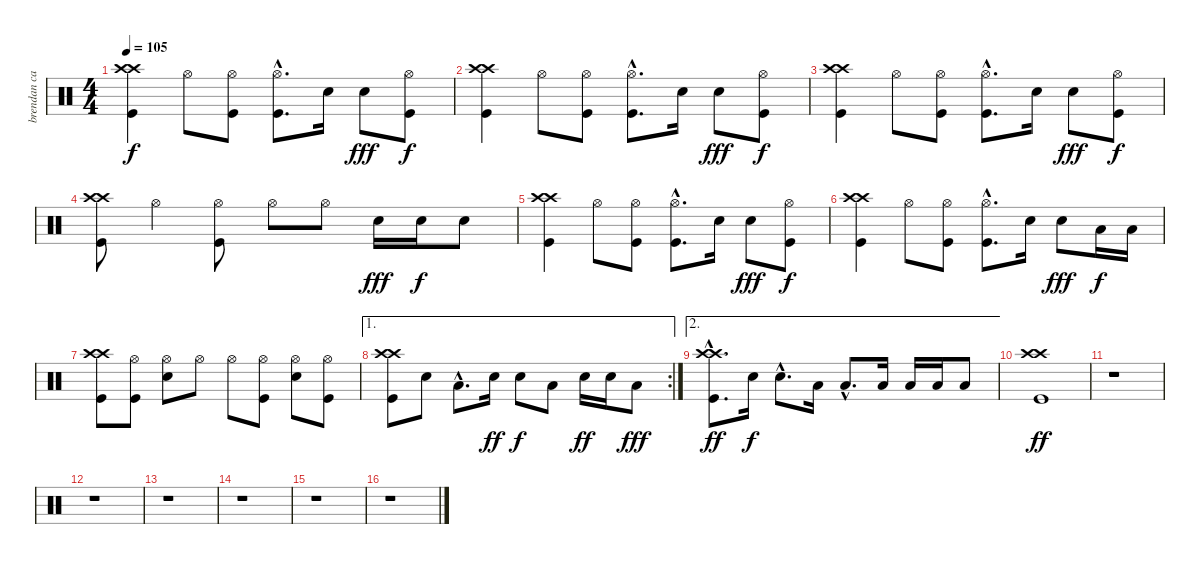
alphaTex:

\track ("brendan canty" "brendan ca") {instrument percussion}
\staff {score}
\articulation defaults
\ts (4 4)
\tempo 105
\clef neutral
\ks c
("Crash high (hit)" "Crash high (hit)" "Kick (hit)").4{dy f} "Hi-Hat (open)".8 ("Hi-Hat (open)" "Kick (hit)").8 ("Hi-Hat (open)"{hac} "Kick (hit)"{hac}).8{d} "Electric Snare (hit)".16 "Electric Snare (hit)".8{dy fff} ("Hi-Hat (open)" "Kick (hit)").8{dy f} |
("Crash high (hit)" "Crash high (hit)" "Kick (hit)").4 "Hi-Hat (open)".8 ("Hi-Hat (open)" "Kick (hit)").8 ("Hi-Hat (open)"{hac} "Kick (hit)"{hac}).8{d} "Electric Snare (hit)".16 "Electric Snare (hit)".8{dy fff} ("Hi-Hat (open)" "Kick (hit)").8{dy f} |
("Crash high (hit)" "Crash high (hit)" "Kick (hit)").4 "Hi-Hat (open)".8 ("Hi-Hat (open)" "Kick (hit)").8 ("Hi-Hat (open)"{hac} "Kick (hit)"{hac}).8{d} "Electric Snare (hit)".16 "Electric Snare (hit)".8{dy fff} ("Hi-Hat (open)" "Kick (hit)").8{dy f} |
("Crash high (hit)" "Crash high (hit)" "Kick (hit)").8 "Hi-Hat (open)".4 ("Hi-Hat (open)" "Kick (hit)").8 "Hi-Hat (open)".8 "Hi-Hat (open)".8 "Electric Snare (hit)".16{dy fff} "Electric Snare (hit)".16{dy f} "Electric Snare (hit)".8 |
("Crash high (hit)" "Crash high (hit)" "Kick (hit)").4 "Hi-Hat (open)".8 ("Hi-Hat (open)" "Kick (hit)").8 ("Hi-Hat (open)"{hac} "Kick (hit)"{hac}).8{d} "Electric Snare (hit)".16 "Electric Snare (hit)".8{dy fff} ("Hi-Hat (open)" "Kick (hit)").8{dy f} |
("Crash high (hit)" "Crash high (hit)" "Kick (hit)").4 "Hi-Hat (open)".8 ("Hi-Hat (open)" "Kick (hit)").8 ("Hi-Hat (open)"{hac} "Kick (hit)"{hac}).8{d} "Electric Snare (hit)".16 "Electric Snare (hit)".8{dy fff} "Low Tom (hit)".16{dy f} "Low Tom (hit)".16 |
("Crash high (hit)" "Crash high (hit)" "Kick (hit)").8 ("Hi-Hat (open)" "Kick (hit)").8 ("Hi-Hat (open)" "Electric Snare (hit)").8 "Hi-Hat (open)".8 "Hi-Hat (open)".8 ("Hi-Hat (open)" "Kick (hit)").8 ("Hi-Hat (open)" "Electric Snare (hit)").8 ("Hi-Hat (open)" "Kick (hit)").8 |
\ae 1
\rc 2
("Crash high (hit)" "Crash high (hit)" "Kick (hit)").8 "Electric Snare (hit)".8 "Low Tom (hit)"{hac}.8{d} "Electric Snare (hit)".16{dy ff} "Electric Snare (hit)".8{dy f} "Low Tom (hit)".8 "Electric Snare (hit)".16{dy ff} "Electric Snare (hit)".16 "Low Floor Tom (hit)".8{dy fff} |
\ae 2
("Crash high (hit)"{hac} "Crash high (hit)"{hac} "Kick (hit)"{hac}).8{d dy ff} "Electric Snare (hit)".16{dy f} "Electric Snare (hit)"{hac}.8{d} "Low Tom (hit)".16 "Low Tom (hit)"{hac}.8{d} "Low Tom (hit)".16 "Low Floor Tom (hit)".16 "Low Floor Tom (hit)".16 "Low Floor Tom (hit)".8 |
("Crash high (hit)" "Crash high (hit)" "Kick (hit)").1{dy ff} |
r.1 |
r.1 |
r.1 |
r.1 |
r.1 |
r.1
